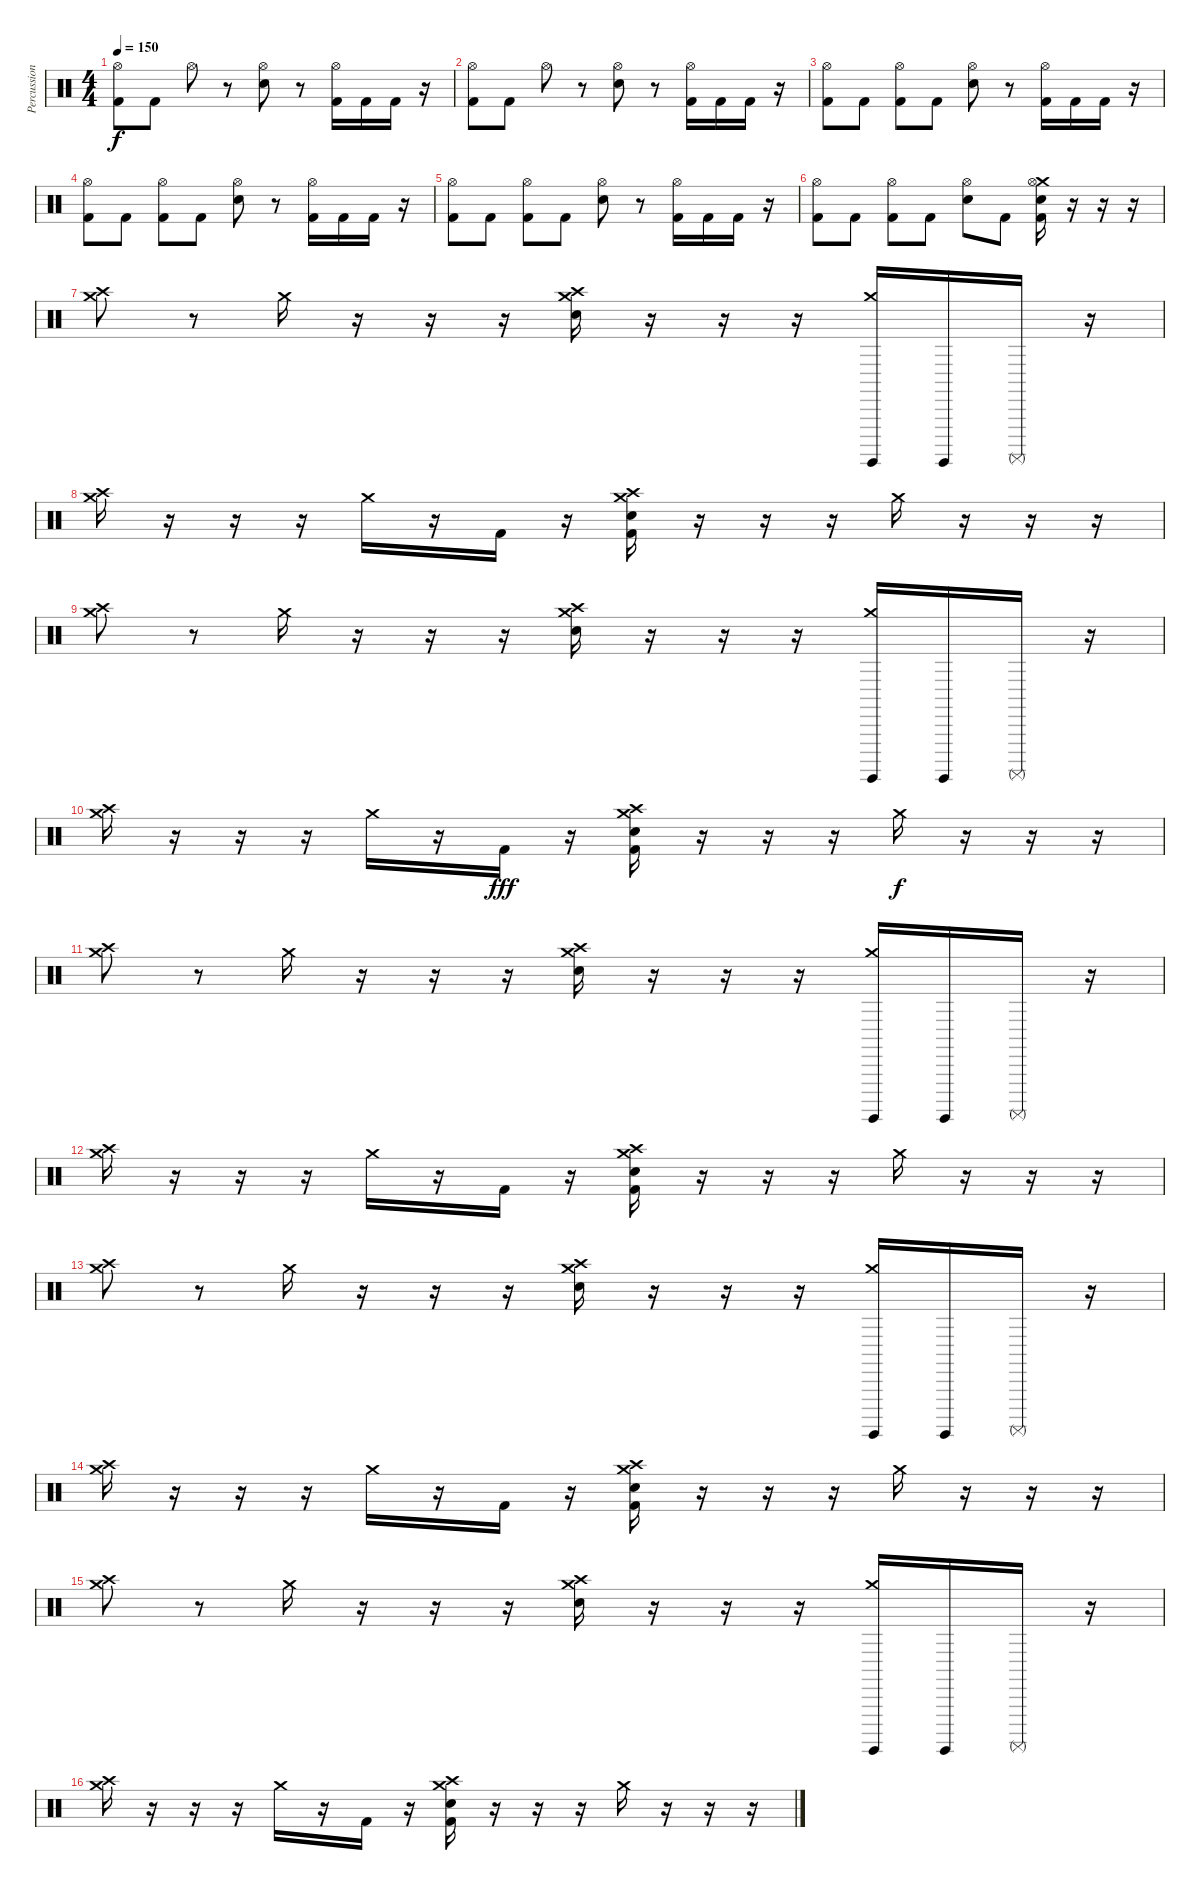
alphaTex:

\track ("Percussions" "Percussion") {instrument percussion}
\staff {score}
\articulation defaults
\ts (4 4)
\tempo 150
\clef neutral
\ks c
("Hi-Hat (open)" "Kick (hit) 2").8{dy f} "Kick (hit) 2".8 "Hi-Hat (open)".8 r.8 ("Hi-Hat (open)" "Electric Snare (hit)").8 r.8 ("Hi-Hat (open)" "Kick (hit) 2").16 "Kick (hit) 2".16 "Kick (hit) 2".16 r.16 |
("Hi-Hat (open)" "Kick (hit) 2").8 "Kick (hit) 2".8 "Hi-Hat (open)".8 r.8 ("Hi-Hat (open)" "Electric Snare (hit)").8 r.8 ("Hi-Hat (open)" "Kick (hit) 2").16 "Kick (hit) 2".16 "Kick (hit) 2".16 r.16 |
("Hi-Hat (open)" "Kick (hit) 2").8 "Kick (hit) 2".8 ("Hi-Hat (open)" "Kick (hit) 2").8 "Kick (hit) 2".8 ("Hi-Hat (open)" "Electric Snare (hit)").8 r.8 ("Hi-Hat (open)" "Kick (hit) 2").16 "Kick (hit) 2".16 "Kick (hit) 2".16 r.16 |
("Hi-Hat (open)" "Kick (hit) 2").8 "Kick (hit) 2".8 ("Hi-Hat (open)" "Kick (hit) 2").8 "Kick (hit) 2".8 ("Hi-Hat (open)" "Electric Snare (hit)").8 r.8 ("Hi-Hat (open)" "Kick (hit) 2").16 "Kick (hit) 2".16 "Kick (hit) 2".16 r.16 |
("Hi-Hat (open)" "Kick (hit) 2").8 "Kick (hit) 2".8 ("Hi-Hat (open)" "Kick (hit) 2").8 "Kick (hit) 2".8 ("Hi-Hat (open)" "Electric Snare (hit)").8 r.8 ("Hi-Hat (open)" "Kick (hit) 2").16 "Kick (hit) 2".16 "Kick (hit) 2".16 r.16 |
("Hi-Hat (open)" "Kick (hit) 2").8 "Kick (hit) 2".8 ("Hi-Hat (open)" "Kick (hit) 2").8 "Kick (hit) 2".8 ("Hi-Hat (open)" "Electric Snare (hit)").8 "Kick (hit) 2".8 ("Crash medium (hit)" "Hi-Hat (open)" "Electric Snare (hit)" "Kick (hit) 2").16 r.16 r.16 r.16 |
("Crash high (hit)" "Crash medium (hit)").8 r.8 "Crash medium (hit)".16 r.16 r.16 r.16 ("Crash high (hit)" "Crash medium (hit)" "Electric Snare (hit)").16 r.16 r.16 r.16 ("Crash medium (hit)" "Surdo (hit)").16 "Surdo (hit)".16 "Surdo (mute)".16 r.16 |
("Crash high (hit)" "Crash medium (hit)").16 r.16 r.16 r.16 "Crash medium (hit)".16 r.16 "Kick (hit) 2".16 r.16 ("Crash high (hit)" "Crash medium (hit)" "Electric Snare (hit)" "Kick (hit) 2").16 r.16 r.16 r.16 "Crash medium (hit)".16 r.16 r.16 r.16 |
("Crash high (hit)" "Crash medium (hit)").8 r.8 "Crash medium (hit)".16 r.16 r.16 r.16 ("Crash high (hit)" "Crash medium (hit)" "Electric Snare (hit)").16 r.16 r.16 r.16 ("Crash medium (hit)" "Surdo (hit)").16 "Surdo (hit)".16 "Surdo (mute)".16 r.16 |
("Crash high (hit)" "Crash medium (hit)").16 r.16 r.16 r.16 "Crash medium (hit)".16 r.16 "Kick (hit) 2".16{dy fff} r.16 ("Crash high (hit)" "Crash medium (hit)" "Electric Snare (hit)" "Kick (hit) 2").16 r.16 r.16 r.16 "Crash medium (hit)".16{dy f} r.16 r.16 r.16 |
("Crash high (hit)" "Crash medium (hit)").8 r.8 "Crash medium (hit)".16 r.16 r.16 r.16 ("Crash high (hit)" "Crash medium (hit)" "Electric Snare (hit)").16 r.16 r.16 r.16 ("Crash medium (hit)" "Surdo (hit)").16 "Surdo (hit)".16 "Surdo (mute)".16 r.16 |
("Crash high (hit)" "Crash medium (hit)").16 r.16 r.16 r.16 "Crash medium (hit)".16 r.16 "Kick (hit) 2".16 r.16 ("Crash high (hit)" "Crash medium (hit)" "Electric Snare (hit)" "Kick (hit) 2").16 r.16 r.16 r.16 "Crash medium (hit)".16 r.16 r.16 r.16 |
("Crash high (hit)" "Crash medium (hit)").8 r.8 "Crash medium (hit)".16 r.16 r.16 r.16 ("Crash high (hit)" "Crash medium (hit)" "Electric Snare (hit)").16 r.16 r.16 r.16 ("Crash medium (hit)" "Surdo (hit)").16 "Surdo (hit)".16 "Surdo (mute)".16 r.16 |
("Crash high (hit)" "Crash medium (hit)").16 r.16 r.16 r.16 "Crash medium (hit)".16 r.16 "Kick (hit) 2".16 r.16 ("Crash high (hit)" "Crash medium (hit)" "Electric Snare (hit)" "Kick (hit) 2").16 r.16 r.16 r.16 "Crash medium (hit)".16 r.16 r.16 r.16 |
("Crash high (hit)" "Crash medium (hit)").8 r.8 "Crash medium (hit)".16 r.16 r.16 r.16 ("Crash high (hit)" "Crash medium (hit)" "Electric Snare (hit)").16 r.16 r.16 r.16 ("Crash medium (hit)" "Surdo (hit)").16 "Surdo (hit)".16 "Surdo (mute)".16 r.16 |
("Crash high (hit)" "Crash medium (hit)").16 r.16 r.16 r.16 "Crash medium (hit)".16 r.16 "Kick (hit) 2".16 r.16 ("Crash high (hit)" "Crash medium (hit)" "Electric Snare (hit)" "Kick (hit) 2").16 r.16 r.16 r.16 "Crash medium (hit)".16 r.16 r.16 r.16
